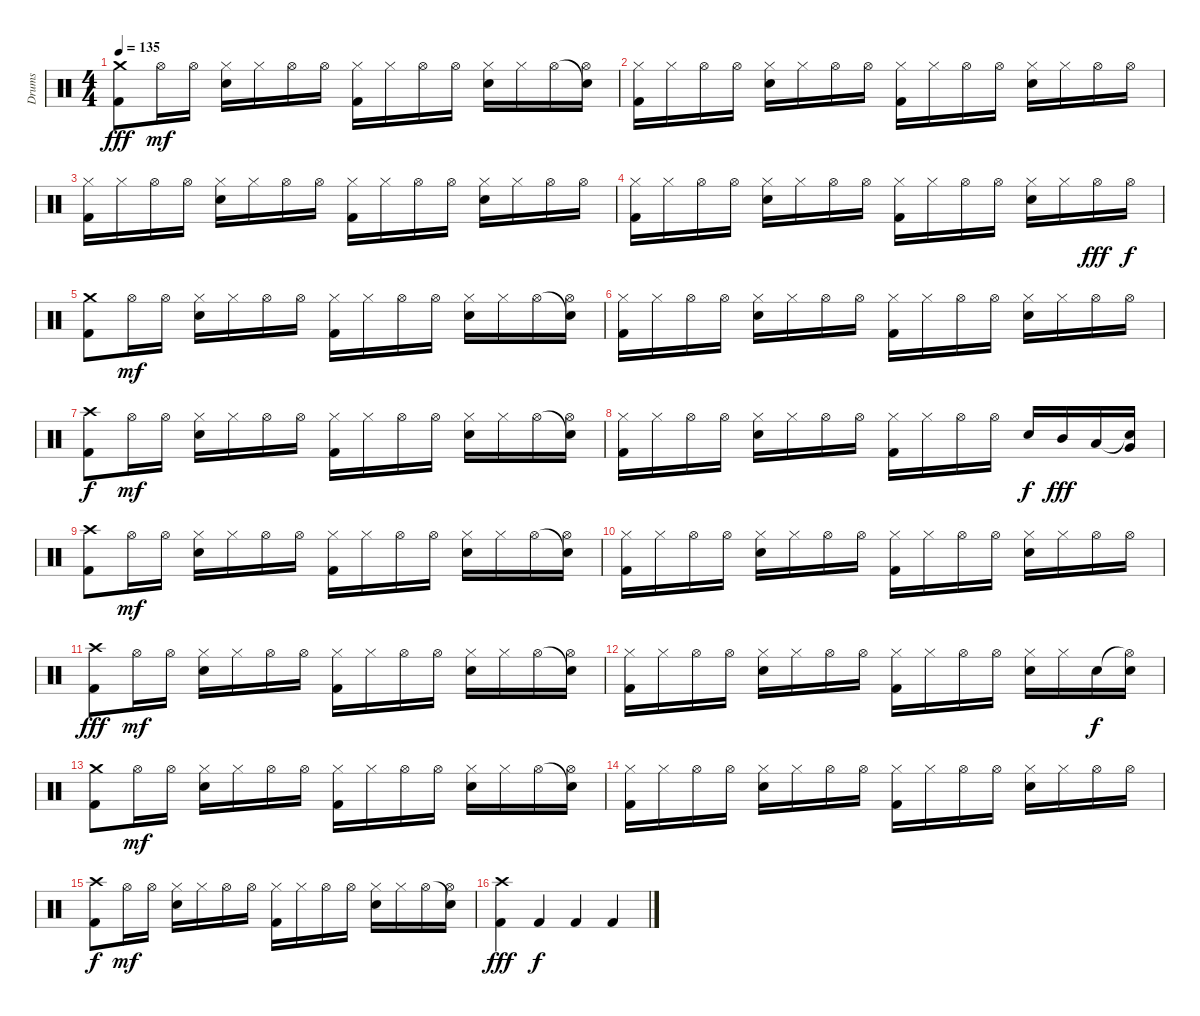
\track ("Drums" "Drums") {instrument percussion}
\staff {score}
\articulation defaults
\ts (4 4)
\tempo 135
\clef neutral
\ks c
("Crash medium (hit)" "Kick (hit) 2").8{dy fff} "Hi-Hat (open)".16{dy mf} "Hi-Hat (open)".16 ("Hi-Hat (closed)" "Snare (hit) 2").16 "Hi-Hat (closed)".16 "Hi-Hat (open)".16 "Hi-Hat (open)".16 ("Hi-Hat (closed)" "Kick (hit) 2").16 "Hi-Hat (closed)".16 "Hi-Hat (open)".16 "Hi-Hat (open)".16 ("Hi-Hat (closed)" "Snare (hit) 2").16 "Hi-Hat (closed)".16 "Hi-Hat (open)".16 ("Snare (hit)"{t} "Hi-Hat (open)").16 |
("Hi-Hat (closed)" "Kick (hit) 2").16 "Hi-Hat (closed)".16 "Hi-Hat (open)".16 "Hi-Hat (open)".16 ("Hi-Hat (closed)" "Snare (hit) 2").16 "Hi-Hat (closed)".16 "Hi-Hat (open)".16 "Hi-Hat (open)".16 ("Hi-Hat (closed)" "Kick (hit) 2").16 "Hi-Hat (closed)".16 "Hi-Hat (open)".16 "Hi-Hat (open)".16 ("Hi-Hat (closed)" "Snare (hit) 2").16 "Hi-Hat (closed)".16 "Hi-Hat (open)".16 "Hi-Hat (open)".16 |
("Hi-Hat (closed)" "Kick (hit) 2").16 "Hi-Hat (closed)".16 "Hi-Hat (open)".16 "Hi-Hat (open)".16 ("Hi-Hat (closed)" "Snare (hit) 2").16 "Hi-Hat (closed)".16 "Hi-Hat (open)".16 "Hi-Hat (open)".16 ("Hi-Hat (closed)" "Kick (hit) 2").16 "Hi-Hat (closed)".16 "Hi-Hat (open)".16 "Hi-Hat (open)".16 ("Hi-Hat (closed)" "Snare (hit) 2").16 "Hi-Hat (closed)".16 "Hi-Hat (open)".16 "Hi-Hat (open)".16 |
("Hi-Hat (closed)" "Kick (hit) 2").16 "Hi-Hat (closed)".16 "Hi-Hat (open)".16 "Hi-Hat (open)".16 ("Hi-Hat (closed)" "Snare (hit) 2").16 "Hi-Hat (closed)".16 "Hi-Hat (open)".16 "Hi-Hat (open)".16 ("Hi-Hat (closed)" "Kick (hit) 2").16 "Hi-Hat (closed)".16 "Hi-Hat (open)".16 "Hi-Hat (open)".16 ("Hi-Hat (closed)" "Snare (hit) 2").16 "Hi-Hat (closed)".16 "Hi-Hat (open)".16{dy fff} "Hi-Hat (open)".16{dy f} |
("Crash medium (hit)" "Kick (hit) 2").8 "Hi-Hat (open)".16{dy mf} "Hi-Hat (open)".16 ("Hi-Hat (closed)" "Snare (hit) 2").16 "Hi-Hat (closed)".16 "Hi-Hat (open)".16 "Hi-Hat (open)".16 ("Hi-Hat (closed)" "Kick (hit) 2").16 "Hi-Hat (closed)".16 "Hi-Hat (open)".16 "Hi-Hat (open)".16 ("Hi-Hat (closed)" "Snare (hit) 2").16 "Hi-Hat (closed)".16 "Hi-Hat (open)".16 ("Snare (hit)"{t} "Hi-Hat (open)").16 |
("Hi-Hat (closed)" "Kick (hit) 2").16 "Hi-Hat (closed)".16 "Hi-Hat (open)".16 "Hi-Hat (open)".16 ("Hi-Hat (closed)" "Snare (hit) 2").16 "Hi-Hat (closed)".16 "Hi-Hat (open)".16 "Hi-Hat (open)".16 ("Hi-Hat (closed)" "Kick (hit) 2").16 "Hi-Hat (closed)".16 "Hi-Hat (open)".16 "Hi-Hat (open)".16 ("Hi-Hat (closed)" "Snare (hit) 2").16 "Hi-Hat (closed)".16 "Hi-Hat (open)".16 "Hi-Hat (open)".16 |
("Crash high (hit)" "Kick (hit) 2").8{dy f} "Hi-Hat (open)".16{dy mf} "Hi-Hat (open)".16 ("Hi-Hat (closed)" "Snare (hit) 2").16 "Hi-Hat (closed)".16 "Hi-Hat (open)".16 "Hi-Hat (open)".16 ("Hi-Hat (closed)" "Kick (hit) 2").16 "Hi-Hat (closed)".16 "Hi-Hat (open)".16 "Hi-Hat (open)".16 ("Hi-Hat (closed)" "Snare (hit) 2").16 "Hi-Hat (closed)".16 "Hi-Hat (open)".16 ("Snare (hit)"{t} "Hi-Hat (open)").16 |
("Hi-Hat (closed)" "Kick (hit) 2").16 "Hi-Hat (closed)".16 "Hi-Hat (open)".16 "Hi-Hat (open)".16 ("Hi-Hat (closed)" "Snare (hit) 2").16 "Hi-Hat (closed)".16 "Hi-Hat (open)".16 "Hi-Hat (open)".16 ("Hi-Hat (closed)" "Kick (hit) 2").16 "Hi-Hat (closed)".16 "Hi-Hat (open)".16 "Hi-Hat (open)".16 "Snare (hit) 2".16{dy f} "Mid Tom (hit)".16{dy fff} "Low Tom (hit)".16 ("Snare (hit)"{t} "Very Low Tom (hit)").16 |
("Crash high (hit)" "Kick (hit) 2").8 "Hi-Hat (open)".16{dy mf} "Hi-Hat (open)".16 ("Hi-Hat (closed)" "Snare (hit) 2").16 "Hi-Hat (closed)".16 "Hi-Hat (open)".16 "Hi-Hat (open)".16 ("Hi-Hat (closed)" "Kick (hit) 2").16 "Hi-Hat (closed)".16 "Hi-Hat (open)".16 "Hi-Hat (open)".16 ("Hi-Hat (closed)" "Snare (hit) 2").16 "Hi-Hat (closed)".16 "Hi-Hat (open)".16 ("Snare (hit)"{t} "Hi-Hat (open)").16 |
("Hi-Hat (closed)" "Kick (hit) 2").16 "Hi-Hat (closed)".16 "Hi-Hat (open)".16 "Hi-Hat (open)".16 ("Hi-Hat (closed)" "Snare (hit) 2").16 "Hi-Hat (closed)".16 "Hi-Hat (open)".16 "Hi-Hat (open)".16 ("Hi-Hat (closed)" "Kick (hit) 2").16 "Hi-Hat (closed)".16 "Hi-Hat (open)".16 "Hi-Hat (open)".16 ("Hi-Hat (closed)" "Snare (hit) 2").16 "Hi-Hat (closed)".16 "Hi-Hat (open)".16 "Hi-Hat (open)".16 |
("Crash high (hit)" "Kick (hit) 2").8{dy fff} "Hi-Hat (open)".16{dy mf} "Hi-Hat (open)".16 ("Hi-Hat (closed)" "Snare (hit) 2").16 "Hi-Hat (closed)".16 "Hi-Hat (open)".16 "Hi-Hat (open)".16 ("Hi-Hat (closed)" "Kick (hit) 2").16 "Hi-Hat (closed)".16 "Hi-Hat (open)".16 "Hi-Hat (open)".16 ("Hi-Hat (closed)" "Snare (hit) 2").16 "Hi-Hat (closed)".16 "Hi-Hat (open)".16 ("Snare (hit)"{t} "Hi-Hat (open)").16 |
("Hi-Hat (closed)" "Kick (hit) 2").16 "Hi-Hat (closed)".16 "Hi-Hat (open)".16 "Hi-Hat (open)".16 ("Hi-Hat (closed)" "Snare (hit) 2").16 "Hi-Hat (closed)".16 "Hi-Hat (open)".16 "Hi-Hat (open)".16 ("Hi-Hat (closed)" "Kick (hit) 2").16 "Hi-Hat (closed)".16 "Hi-Hat (open)".16 "Hi-Hat (open)".16 ("Hi-Hat (closed)" "Snare (hit) 2").16 "Hi-Hat (closed)".16 "Snare (hit) 2".16{dy f} ("Hi-Hat (open)"{t} "Snare (hit) 2").16 |
("Crash medium (hit)" "Kick (hit) 2").8 "Hi-Hat (open)".16{dy mf} "Hi-Hat (open)".16 ("Hi-Hat (closed)" "Snare (hit) 2").16 "Hi-Hat (closed)".16 "Hi-Hat (open)".16 "Hi-Hat (open)".16 ("Hi-Hat (closed)" "Kick (hit) 2").16 "Hi-Hat (closed)".16 "Hi-Hat (open)".16 "Hi-Hat (open)".16 ("Hi-Hat (closed)" "Snare (hit) 2").16 "Hi-Hat (closed)".16 "Hi-Hat (open)".16 ("Snare (hit)"{t} "Hi-Hat (open)").16 |
("Hi-Hat (closed)" "Kick (hit) 2").16 "Hi-Hat (closed)".16 "Hi-Hat (open)".16 "Hi-Hat (open)".16 ("Hi-Hat (closed)" "Snare (hit) 2").16 "Hi-Hat (closed)".16 "Hi-Hat (open)".16 "Hi-Hat (open)".16 ("Hi-Hat (closed)" "Kick (hit) 2").16 "Hi-Hat (closed)".16 "Hi-Hat (open)".16 "Hi-Hat (open)".16 ("Hi-Hat (closed)" "Snare (hit) 2").16 "Hi-Hat (closed)".16 "Hi-Hat (open)".16 "Hi-Hat (open)".16 |
("Crash high (hit)" "Kick (hit) 2").8{dy f} "Hi-Hat (open)".16{dy mf} "Hi-Hat (open)".16 ("Hi-Hat (closed)" "Snare (hit) 2").16 "Hi-Hat (closed)".16 "Hi-Hat (open)".16 "Hi-Hat (open)".16 ("Hi-Hat (closed)" "Kick (hit) 2").16 "Hi-Hat (closed)".16 "Hi-Hat (open)".16 "Hi-Hat (open)".16 ("Hi-Hat (closed)" "Snare (hit) 2").16 "Hi-Hat (closed)".16 "Hi-Hat (open)".16 ("Snare (hit)"{t} "Hi-Hat (open)").16 |
("Crash high (hit)" "Kick (hit) 2").4{dy fff} "Kick (hit) 2".4{dy f} "Kick (hit) 2".4 "Kick (hit) 2".4
